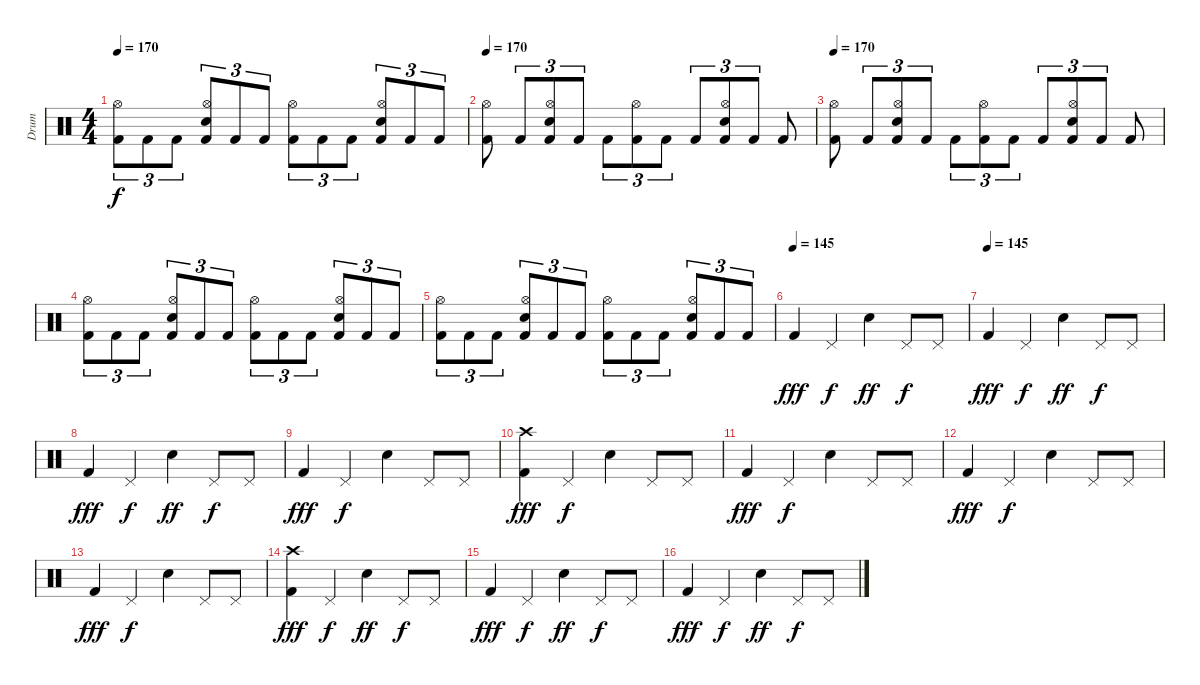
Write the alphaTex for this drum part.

\track ("Drum" "Drum") {instrument percussion}
\staff {score}
\articulation defaults
\ts (4 4)
\tempo 170
\clef neutral
\ks c
("Kick (hit) 2" "Hi-Hat (open)").8{tu (3 2) dy f} "Kick (hit) 2".8{tu (3 2)} "Kick (hit) 2".8{tu (3 2)} ("Kick (hit) 2" "Electric Snare (hit)" "Hi-Hat (open)").8{tu (3 2)} "Kick (hit) 2".8{tu (3 2)} "Kick (hit) 2".8{tu (3 2)} ("Kick (hit) 2" "Hi-Hat (open)").8{tu (3 2)} "Kick (hit) 2".8{tu (3 2)} "Kick (hit) 2".8{tu (3 2)} ("Kick (hit) 2" "Electric Snare (hit)" "Hi-Hat (open)").8{tu (3 2)} "Kick (hit) 2".8{tu (3 2)} "Kick (hit) 2".8{tu (3 2)} |
\tempo 170
("Kick (hit) 2" "Hi-Hat (open)").8 "Kick (hit) 2".8{tu (3 2)} ("Kick (hit) 2" "Electric Snare (hit)" "Hi-Hat (open)").8{tu (3 2)} "Kick (hit) 2".8{tu (3 2)} "Kick (hit) 2".8{tu (3 2)} ("Kick (hit) 2" "Hi-Hat (open)").8{tu (3 2)} "Kick (hit) 2".8{tu (3 2)} "Kick (hit) 2".8{tu (3 2)} ("Kick (hit) 2" "Electric Snare (hit)" "Hi-Hat (open)").8{tu (3 2)} "Kick (hit) 2".8{tu (3 2)} "Kick (hit) 2".8 |
\tempo 170
("Kick (hit) 2" "Hi-Hat (open)").8 "Kick (hit) 2".8{tu (3 2)} ("Kick (hit) 2" "Electric Snare (hit)" "Hi-Hat (open)").8{tu (3 2)} "Kick (hit) 2".8{tu (3 2)} "Kick (hit) 2".8{tu (3 2)} ("Kick (hit) 2" "Hi-Hat (open)").8{tu (3 2)} "Kick (hit) 2".8{tu (3 2)} "Kick (hit) 2".8{tu (3 2)} ("Kick (hit) 2" "Electric Snare (hit)" "Hi-Hat (open)").8{tu (3 2)} "Kick (hit) 2".8{tu (3 2)} "Kick (hit) 2".8 |
("Kick (hit) 2" "Hi-Hat (open)").8{tu (3 2)} "Kick (hit) 2".8{tu (3 2)} "Kick (hit) 2".8{tu (3 2)} ("Kick (hit) 2" "Electric Snare (hit)" "Hi-Hat (open)").8{tu (3 2)} "Kick (hit) 2".8{tu (3 2)} "Kick (hit) 2".8{tu (3 2)} ("Kick (hit) 2" "Hi-Hat (open)").8{tu (3 2)} "Kick (hit) 2".8{tu (3 2)} "Kick (hit) 2".8{tu (3 2)} ("Kick (hit) 2" "Electric Snare (hit)" "Hi-Hat (open)").8{tu (3 2)} "Kick (hit) 2".8{tu (3 2)} "Kick (hit) 2".8{tu (3 2)} |
("Kick (hit) 2" "Hi-Hat (open)").8{tu (3 2)} "Kick (hit) 2".8{tu (3 2)} "Kick (hit) 2".8{tu (3 2)} ("Kick (hit) 2" "Electric Snare (hit)" "Hi-Hat (open)").8{tu (3 2)} "Kick (hit) 2".8{tu (3 2)} "Kick (hit) 2".8{tu (3 2)} ("Kick (hit) 2" "Hi-Hat (open)").8{tu (3 2)} "Kick (hit) 2".8{tu (3 2)} "Kick (hit) 2".8{tu (3 2)} ("Kick (hit) 2" "Electric Snare (hit)" "Hi-Hat (open)").8{tu (3 2)} "Kick (hit) 2".8{tu (3 2)} "Kick (hit) 2".8{tu (3 2)} |
\tempo (145)
"Kick (hit) 2".4{dy fff} "Pedal Hi-Hat (hit)".4{dy f} "Electric Snare (hit)".4{dy ff} "Pedal Hi-Hat (hit)".8{dy f} "Pedal Hi-Hat (hit)".8 |
\tempo (145)
"Kick (hit) 2".4{dy fff} "Pedal Hi-Hat (hit)".4{dy f} "Electric Snare (hit)".4{dy ff} "Pedal Hi-Hat (hit)".8{dy f} "Pedal Hi-Hat (hit)".8 |
"Kick (hit) 2".4{dy fff} "Pedal Hi-Hat (hit)".4{dy f} "Electric Snare (hit)".4{dy ff} "Pedal Hi-Hat (hit)".8{dy f} "Pedal Hi-Hat (hit)".8 |
"Kick (hit) 2".4{dy fff} "Pedal Hi-Hat (hit)".4{dy f} "Electric Snare (hit)".4 "Pedal Hi-Hat (hit)".8 "Pedal Hi-Hat (hit)".8 |
("Crash high (hit)" "Kick (hit) 2").4{dy fff} "Pedal Hi-Hat (hit)".4{dy f} "Electric Snare (hit)".4 "Pedal Hi-Hat (hit)".8 "Pedal Hi-Hat (hit)".8 |
"Kick (hit) 2".4{dy fff} "Pedal Hi-Hat (hit)".4{dy f} "Electric Snare (hit)".4 "Pedal Hi-Hat (hit)".8 "Pedal Hi-Hat (hit)".8 |
"Kick (hit) 2".4{dy fff} "Pedal Hi-Hat (hit)".4{dy f} "Electric Snare (hit)".4 "Pedal Hi-Hat (hit)".8 "Pedal Hi-Hat (hit)".8 |
"Kick (hit) 2".4{dy fff} "Pedal Hi-Hat (hit)".4{dy f} "Electric Snare (hit)".4 "Pedal Hi-Hat (hit)".8 "Pedal Hi-Hat (hit)".8 |
("Crash high (hit)" "Kick (hit) 2").4{dy fff} "Pedal Hi-Hat (hit)".4{dy f} "Electric Snare (hit)".4{dy ff} "Pedal Hi-Hat (hit)".8{dy f} "Pedal Hi-Hat (hit)".8 |
"Kick (hit) 2".4{dy fff} "Pedal Hi-Hat (hit)".4{dy f} "Electric Snare (hit)".4{dy ff} "Pedal Hi-Hat (hit)".8{dy f} "Pedal Hi-Hat (hit)".8 |
"Kick (hit) 2".4{dy fff} "Pedal Hi-Hat (hit)".4{dy f} "Electric Snare (hit)".4{dy ff} "Pedal Hi-Hat (hit)".8{dy f} "Pedal Hi-Hat (hit)".8
